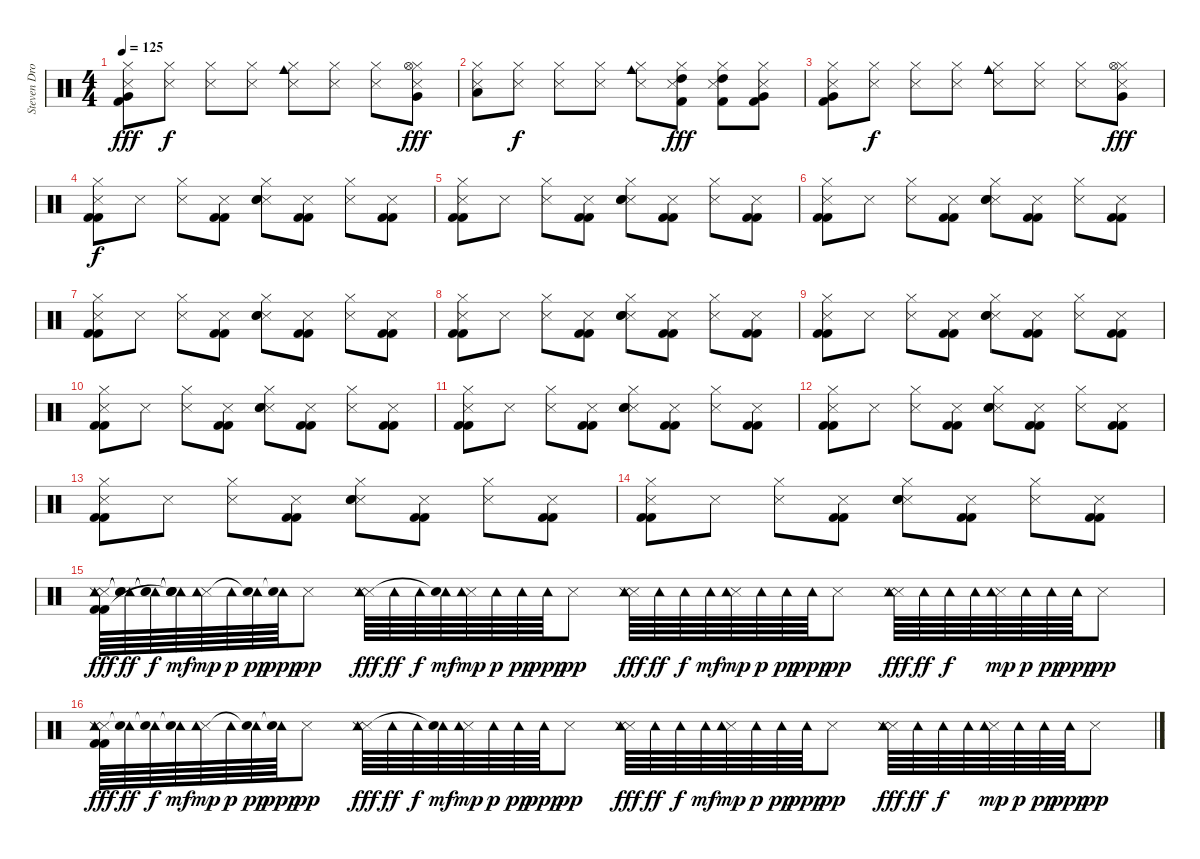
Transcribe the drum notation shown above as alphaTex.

\track ("Steven Drozd (Drums)" "Steven Dro") {instrument percussion}
\staff {score}
\articulation defaults
\ts (4 4)
\tempo 125
\clef neutral
\ks c
("Hi-Hat (closed)" "Metronome (hit)" "Very Low Tom (hit)" "Kick (hit) 2").8{dy fff} ("Hi-Hat (closed)" "Metronome (hit)").8{dy f} ("Hi-Hat (closed)" "Metronome (hit)").8 ("Hi-Hat (closed)" "Metronome (hit)").8 ("Hi-Hat (closed)" "Metronome (hit)" "Cowbell medium (hit)").8 ("Hi-Hat (closed)" "Metronome (hit)").8 ("Hi-Hat (closed)" "Metronome (hit)").8 ("Hi-Hat (closed)" "Metronome (hit)" "Hi-Hat (open)" "Very Low Tom (hit)").8{dy fff} |
("Hi-Hat (closed)" "Metronome (hit)" "Low Floor Tom (hit)").8 ("Hi-Hat (closed)" "Metronome (hit)").8{dy f} ("Hi-Hat (closed)" "Metronome (hit)").8 ("Hi-Hat (closed)" "Metronome (hit)").8 ("Hi-Hat (closed)" "Metronome (hit)" "Cowbell medium (hit)").8 ("Hi-Hat (closed)" "Metronome (hit)" "High Tom (hit)" "Kick (hit) 2").8{dy fff} ("Hi-Hat (closed)" "Metronome (hit)" "High Tom (hit)" "Kick (hit) 2").8 ("Hi-Hat (closed)" "Metronome (hit)" "Very Low Tom (hit)" "Kick (hit) 2").8 |
("Hi-Hat (closed)" "Metronome (hit)" "Very Low Tom (hit)" "Kick (hit) 2").8 ("Hi-Hat (closed)" "Metronome (hit)").8{dy f} ("Hi-Hat (closed)" "Metronome (hit)").8 ("Hi-Hat (closed)" "Metronome (hit)").8 ("Hi-Hat (closed)" "Metronome (hit)" "Cowbell medium (hit)").8 ("Hi-Hat (closed)" "Metronome (hit)").8 ("Hi-Hat (closed)" "Metronome (hit)").8 ("Hi-Hat (closed)" "Metronome (hit)" "Hi-Hat (open)" "Very Low Tom (hit)").8{dy fff} |
("Hi-Hat (closed)" "Metronome (hit)" "Kick (hit) 2" "Kick (hit) 2").8{dy f} "Metronome (hit)".8 ("Hi-Hat (closed)" "Metronome (hit)").8 ("Metronome (hit)" "Kick (hit) 2" "Kick (hit) 2").8 ("Hi-Hat (closed)" "Metronome (hit)" "Snare (hit) 2" "Snare (hit) 2").8 ("Metronome (hit)" "Kick (hit) 2" "Kick (hit) 2").8 ("Hi-Hat (closed)" "Metronome (hit)").8 ("Metronome (hit)" "Kick (hit) 2" "Kick (hit) 2").8 |
("Hi-Hat (closed)" "Metronome (hit)" "Kick (hit) 2" "Kick (hit) 2").8 "Metronome (hit)".8 ("Hi-Hat (closed)" "Metronome (hit)").8 ("Metronome (hit)" "Kick (hit) 2" "Kick (hit) 2").8 ("Hi-Hat (closed)" "Metronome (hit)" "Snare (hit) 2" "Snare (hit) 2").8 ("Metronome (hit)" "Kick (hit) 2" "Kick (hit) 2").8 ("Hi-Hat (closed)" "Metronome (hit)").8 ("Metronome (hit)" "Kick (hit) 2" "Kick (hit) 2").8 |
("Hi-Hat (closed)" "Metronome (hit)" "Kick (hit) 2" "Kick (hit) 2").8 "Metronome (hit)".8 ("Hi-Hat (closed)" "Metronome (hit)").8 ("Metronome (hit)" "Kick (hit) 2" "Kick (hit) 2").8 ("Hi-Hat (closed)" "Metronome (hit)" "Snare (hit) 2" "Snare (hit) 2").8 ("Metronome (hit)" "Kick (hit) 2" "Kick (hit) 2").8 ("Hi-Hat (closed)" "Metronome (hit)").8 ("Metronome (hit)" "Kick (hit) 2" "Kick (hit) 2").8 |
("Hi-Hat (closed)" "Metronome (hit)" "Kick (hit) 2" "Kick (hit) 2").8 "Metronome (hit)".8 ("Hi-Hat (closed)" "Metronome (hit)").8 ("Metronome (hit)" "Kick (hit) 2" "Kick (hit) 2").8 ("Hi-Hat (closed)" "Metronome (hit)" "Snare (hit) 2" "Snare (hit) 2").8 ("Metronome (hit)" "Kick (hit) 2" "Kick (hit) 2").8 ("Hi-Hat (closed)" "Metronome (hit)").8 ("Metronome (hit)" "Kick (hit) 2" "Kick (hit) 2").8 |
("Hi-Hat (closed)" "Metronome (hit)" "Kick (hit) 2" "Kick (hit) 2").8 "Metronome (hit)".8 ("Hi-Hat (closed)" "Metronome (hit)").8 ("Metronome (hit)" "Kick (hit) 2" "Kick (hit) 2").8 ("Hi-Hat (closed)" "Metronome (hit)" "Snare (hit) 2" "Snare (hit) 2").8 ("Metronome (hit)" "Kick (hit) 2" "Kick (hit) 2").8 ("Hi-Hat (closed)" "Metronome (hit)").8 ("Metronome (hit)" "Kick (hit) 2" "Kick (hit) 2").8 |
("Hi-Hat (closed)" "Metronome (hit)" "Kick (hit) 2" "Kick (hit) 2").8 "Metronome (hit)".8 ("Hi-Hat (closed)" "Metronome (hit)").8 ("Metronome (hit)" "Kick (hit) 2" "Kick (hit) 2").8 ("Hi-Hat (closed)" "Metronome (hit)" "Snare (hit) 2" "Snare (hit) 2").8 ("Metronome (hit)" "Kick (hit) 2" "Kick (hit) 2").8 ("Hi-Hat (closed)" "Metronome (hit)").8 ("Metronome (hit)" "Kick (hit) 2" "Kick (hit) 2").8 |
("Hi-Hat (closed)" "Metronome (hit)" "Kick (hit) 2" "Kick (hit) 2").8 "Metronome (hit)".8 ("Hi-Hat (closed)" "Metronome (hit)").8 ("Metronome (hit)" "Kick (hit) 2" "Kick (hit) 2").8 ("Hi-Hat (closed)" "Metronome (hit)" "Snare (hit) 2" "Snare (hit) 2").8 ("Metronome (hit)" "Kick (hit) 2" "Kick (hit) 2").8 ("Hi-Hat (closed)" "Metronome (hit)").8 ("Metronome (hit)" "Kick (hit) 2" "Kick (hit) 2").8 |
("Hi-Hat (closed)" "Metronome (hit)" "Kick (hit) 2" "Kick (hit) 2").8 "Metronome (hit)".8 ("Hi-Hat (closed)" "Metronome (hit)").8 ("Metronome (hit)" "Kick (hit) 2" "Kick (hit) 2").8 ("Hi-Hat (closed)" "Metronome (hit)" "Snare (hit) 2" "Snare (hit) 2").8 ("Metronome (hit)" "Kick (hit) 2" "Kick (hit) 2").8 ("Hi-Hat (closed)" "Metronome (hit)").8 ("Metronome (hit)" "Kick (hit) 2" "Kick (hit) 2").8 |
("Hi-Hat (closed)" "Metronome (hit)" "Kick (hit) 2" "Kick (hit) 2").8 "Metronome (hit)".8 ("Hi-Hat (closed)" "Metronome (hit)").8 ("Metronome (hit)" "Kick (hit) 2" "Kick (hit) 2").8 ("Hi-Hat (closed)" "Metronome (hit)" "Snare (hit) 2" "Snare (hit) 2").8 ("Metronome (hit)" "Kick (hit) 2" "Kick (hit) 2").8 ("Hi-Hat (closed)" "Metronome (hit)").8 ("Metronome (hit)" "Kick (hit) 2" "Kick (hit) 2").8 |
("Hi-Hat (closed)" "Metronome (hit)" "Kick (hit) 2" "Kick (hit) 2").8 "Metronome (hit)".8 ("Hi-Hat (closed)" "Metronome (hit)").8 ("Metronome (hit)" "Kick (hit) 2" "Kick (hit) 2").8 ("Hi-Hat (closed)" "Metronome (hit)" "Snare (hit) 2" "Snare (hit) 2").8 ("Metronome (hit)" "Kick (hit) 2" "Kick (hit) 2").8 ("Hi-Hat (closed)" "Metronome (hit)").8 ("Metronome (hit)" "Kick (hit) 2" "Kick (hit) 2").8 |
("Hi-Hat (closed)" "Metronome (hit)" "Kick (hit) 2" "Kick (hit) 2").8 "Metronome (hit)".8 ("Hi-Hat (closed)" "Metronome (hit)").8 ("Metronome (hit)" "Kick (hit) 2" "Kick (hit) 2").8 ("Hi-Hat (closed)" "Metronome (hit)" "Snare (hit) 2" "Snare (hit) 2").8 ("Metronome (hit)" "Kick (hit) 2" "Kick (hit) 2").8 ("Hi-Hat (closed)" "Metronome (hit)").8 ("Metronome (hit)" "Kick (hit) 2" "Kick (hit) 2").8 |
("Metronome (hit)" "Tambourine (hit)" "Snare (side stick) 3" "Kick (hit) 2" "Kick (hit) 2").64{dy fff} ("Tambourine (hit)" "Snare (hit)"{t} "Snare (hit)"{t}).64{dy ff} ("Tambourine (hit)" "Snare (hit)"{t} "Snare (hit)"{t}).64{dy f} ("Tambourine (hit)" "Snare (hit)"{t} "Snare (hit)"{t} "Snare (hit)"{t}).64{dy mf} ("Metronome (hit)" "Tambourine (hit)").64{dy mp} "Tambourine (hit)".64{dy p} ("Tambourine (hit)" "Snare (hit)"{t}).64{dy pp} ("Tambourine (hit)" "Snare (hit)"{t}).64{dy ppp} "Metronome (hit)".8{dy pp} ("Metronome (hit)" "Tambourine (hit)" "Snare (side stick) 3").64{dy fff} "Tambourine (hit)".64{dy ff} "Tambourine (hit)".64{dy f} ("Tambourine (hit)" "Snare (hit)"{t}).64{dy mf} ("Metronome (hit)" "Tambourine (hit)").64{dy mp} "Tambourine (hit)".64{dy p} "Tambourine (hit)".64{dy pp} "Tambourine (hit)".64{dy ppp} "Metronome (hit)".8{dy pp} ("Metronome (hit)" "Tambourine (hit)" "Snare (side stick) 3").64{dy fff} "Tambourine (hit)".64{dy ff} "Tambourine (hit)".64{dy f} "Tambourine (hit)".64{dy mf} ("Metronome (hit)" "Tambourine (hit)").64{dy mp} "Tambourine (hit)".64{dy p} "Tambourine (hit)".64{dy pp} "Tambourine (hit)".64{dy ppp} "Metronome (hit)".8{dy pp} ("Metronome (hit)" "Tambourine (hit)" "Snare (side stick) 3").64{dy fff} "Tambourine (hit)".64{dy ff} "Tambourine (hit)".64{dy f} "Tambourine (hit)".64 ("Metronome (hit)" "Tambourine (hit)").64{dy mp} "Tambourine (hit)".64{dy p} "Tambourine (hit)".64{dy pp} "Tambourine (hit)".64{dy ppp} "Metronome (hit)".8{dy pp} |
("Metronome (hit)" "Tambourine (hit)" "Snare (side stick) 3" "Kick (hit) 2" "Kick (hit) 2").64{dy fff} ("Tambourine (hit)" "Snare (hit)"{t}).64{dy ff} ("Tambourine (hit)" "Snare (hit)"{t}).64{dy f} ("Tambourine (hit)" "Snare (hit)"{t}).64{dy mf} ("Metronome (hit)" "Tambourine (hit)").64{dy mp} "Tambourine (hit)".64{dy p} ("Tambourine (hit)" "Snare (hit)"{t}).64{dy pp} ("Tambourine (hit)" "Snare (hit)"{t}).64{dy ppp} "Metronome (hit)".8{dy pp} ("Metronome (hit)" "Tambourine (hit)" "Snare (side stick) 3").64{dy fff} "Tambourine (hit)".64{dy ff} "Tambourine (hit)".64{dy f} ("Tambourine (hit)" "Snare (hit)"{t}).64{dy mf} ("Metronome (hit)" "Tambourine (hit)").64{dy mp} "Tambourine (hit)".64{dy p} "Tambourine (hit)".64{dy pp} "Tambourine (hit)".64{dy ppp} "Metronome (hit)".8{dy pp} ("Metronome (hit)" "Tambourine (hit)" "Snare (side stick) 3").64{dy fff} "Tambourine (hit)".64{dy ff} "Tambourine (hit)".64{dy f} "Tambourine (hit)".64{dy mf} ("Metronome (hit)" "Tambourine (hit)").64{dy mp} "Tambourine (hit)".64{dy p} "Tambourine (hit)".64{dy pp} "Tambourine (hit)".64{dy ppp} "Metronome (hit)".8{dy pp} ("Metronome (hit)" "Tambourine (hit)" "Snare (side stick) 3").64{dy fff} "Tambourine (hit)".64{dy ff} "Tambourine (hit)".64{dy f} "Tambourine (hit)".64 ("Metronome (hit)" "Tambourine (hit)").64{dy mp} "Tambourine (hit)".64{dy p} "Tambourine (hit)".64{dy pp} "Tambourine (hit)".64{dy ppp} "Metronome (hit)".8{dy pp}
